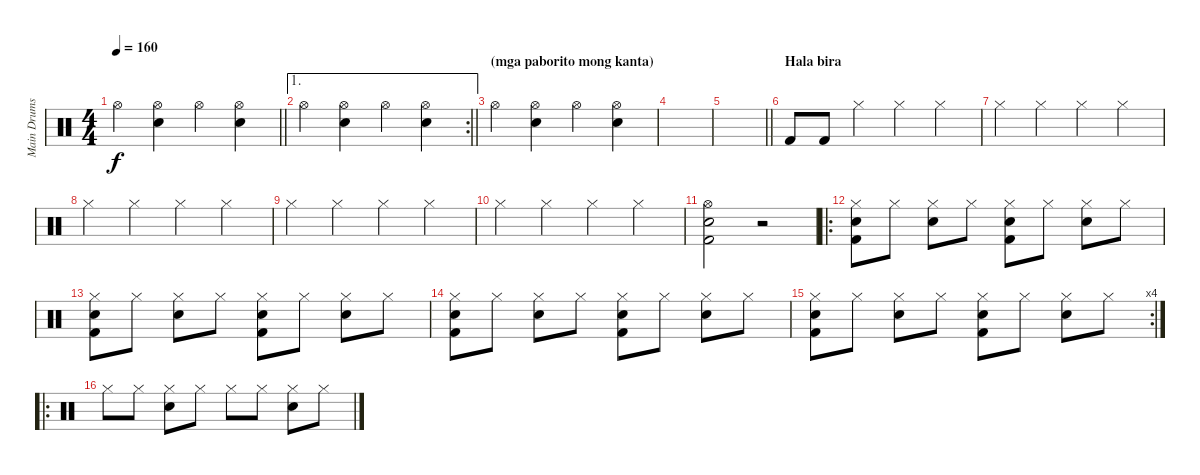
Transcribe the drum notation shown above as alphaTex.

\track ("Main Drumset" "Main Drums") {instrument percussion}
\staff {score}
\articulation defaults
\ts (4 4)
\tempo 160
\clef neutral
\barLineRight lightlight
\ks c "Hi-Hat (open)".4{dy f}
("Hi-Hat (open)" "Electric Snare (hit)").4 "Hi-Hat (open)".4 ("Hi-Hat (open)" "Electric Snare (hit)").4 |
\ae 1
\rc 2
\section ("" "")
\barLineRight lightlight "Hi-Hat (open)".4
("Hi-Hat (open)" "Electric Snare (hit)").4 "Hi-Hat (open)".4 ("Hi-Hat (open)" "Electric Snare (hit)").4 |
\section ("" "(mga paborito mong kanta)")
"Hi-Hat (open)".4 ("Hi-Hat (open)" "Electric Snare (hit)").4 "Hi-Hat (open)".4 ("Hi-Hat (open)" "Electric Snare (hit)").4 |
|
\barLineRight lightlight
|
\section ("" "Hala bira")
"Kick (hit) 2".8 "Kick (hit) 2".8 "Hi-Hat (closed)".4 "Hi-Hat (closed)".4 "Hi-Hat (closed)".4 |
"Hi-Hat (closed)".4 "Hi-Hat (closed)".4 "Hi-Hat (closed)".4 "Hi-Hat (closed)".4 |
"Hi-Hat (closed)".4 "Hi-Hat (closed)".4 "Hi-Hat (closed)".4 "Hi-Hat (closed)".4 |
"Hi-Hat (closed)".4 "Hi-Hat (closed)".4 "Hi-Hat (closed)".4 "Hi-Hat (closed)".4 |
"Hi-Hat (closed)".4 "Hi-Hat (closed)".4 "Hi-Hat (closed)".4 "Hi-Hat (closed)".4 |
("Hi-Hat (open)" "Electric Snare (hit)" "Kick (hit) 2").2 r.2 |
\ro
("Hi-Hat (closed)" "Electric Snare (hit)" "Kick (hit) 2").8 "Hi-Hat (closed)".8 ("Hi-Hat (closed)" "Electric Snare (hit)").8 "Hi-Hat (closed)".8 ("Hi-Hat (closed)" "Electric Snare (hit)" "Kick (hit) 2").8 "Hi-Hat (closed)".8 ("Hi-Hat (closed)" "Electric Snare (hit)").8 "Hi-Hat (closed)".8 |
("Hi-Hat (closed)" "Electric Snare (hit)" "Kick (hit) 2").8 "Hi-Hat (closed)".8 ("Hi-Hat (closed)" "Electric Snare (hit)").8 "Hi-Hat (closed)".8 ("Hi-Hat (closed)" "Electric Snare (hit)" "Kick (hit) 2").8 "Hi-Hat (closed)".8 ("Hi-Hat (closed)" "Electric Snare (hit)").8 "Hi-Hat (closed)".8 |
("Hi-Hat (closed)" "Electric Snare (hit)" "Kick (hit) 2").8 "Hi-Hat (closed)".8 ("Hi-Hat (closed)" "Electric Snare (hit)").8 "Hi-Hat (closed)".8 ("Hi-Hat (closed)" "Electric Snare (hit)" "Kick (hit) 2").8 "Hi-Hat (closed)".8 ("Hi-Hat (closed)" "Electric Snare (hit)").8 "Hi-Hat (closed)".8 |
\rc 4
("Hi-Hat (closed)" "Electric Snare (hit)" "Kick (hit) 2").8 "Hi-Hat (closed)".8 ("Hi-Hat (closed)" "Electric Snare (hit)").8 "Hi-Hat (closed)".8 ("Hi-Hat (closed)" "Electric Snare (hit)" "Kick (hit) 2").8 "Hi-Hat (closed)".8 ("Hi-Hat (closed)" "Electric Snare (hit)").8 "Hi-Hat (closed)".8 |
\ro "Hi-Hat (closed)".8 "Hi-Hat (closed)".8
("Hi-Hat (closed)" "Electric Snare (hit)").8 "Hi-Hat (closed)".8 "Hi-Hat (closed)".8 "Hi-Hat (closed)".8 ("Hi-Hat (closed)" "Electric Snare (hit)").8 "Hi-Hat (closed)".8
